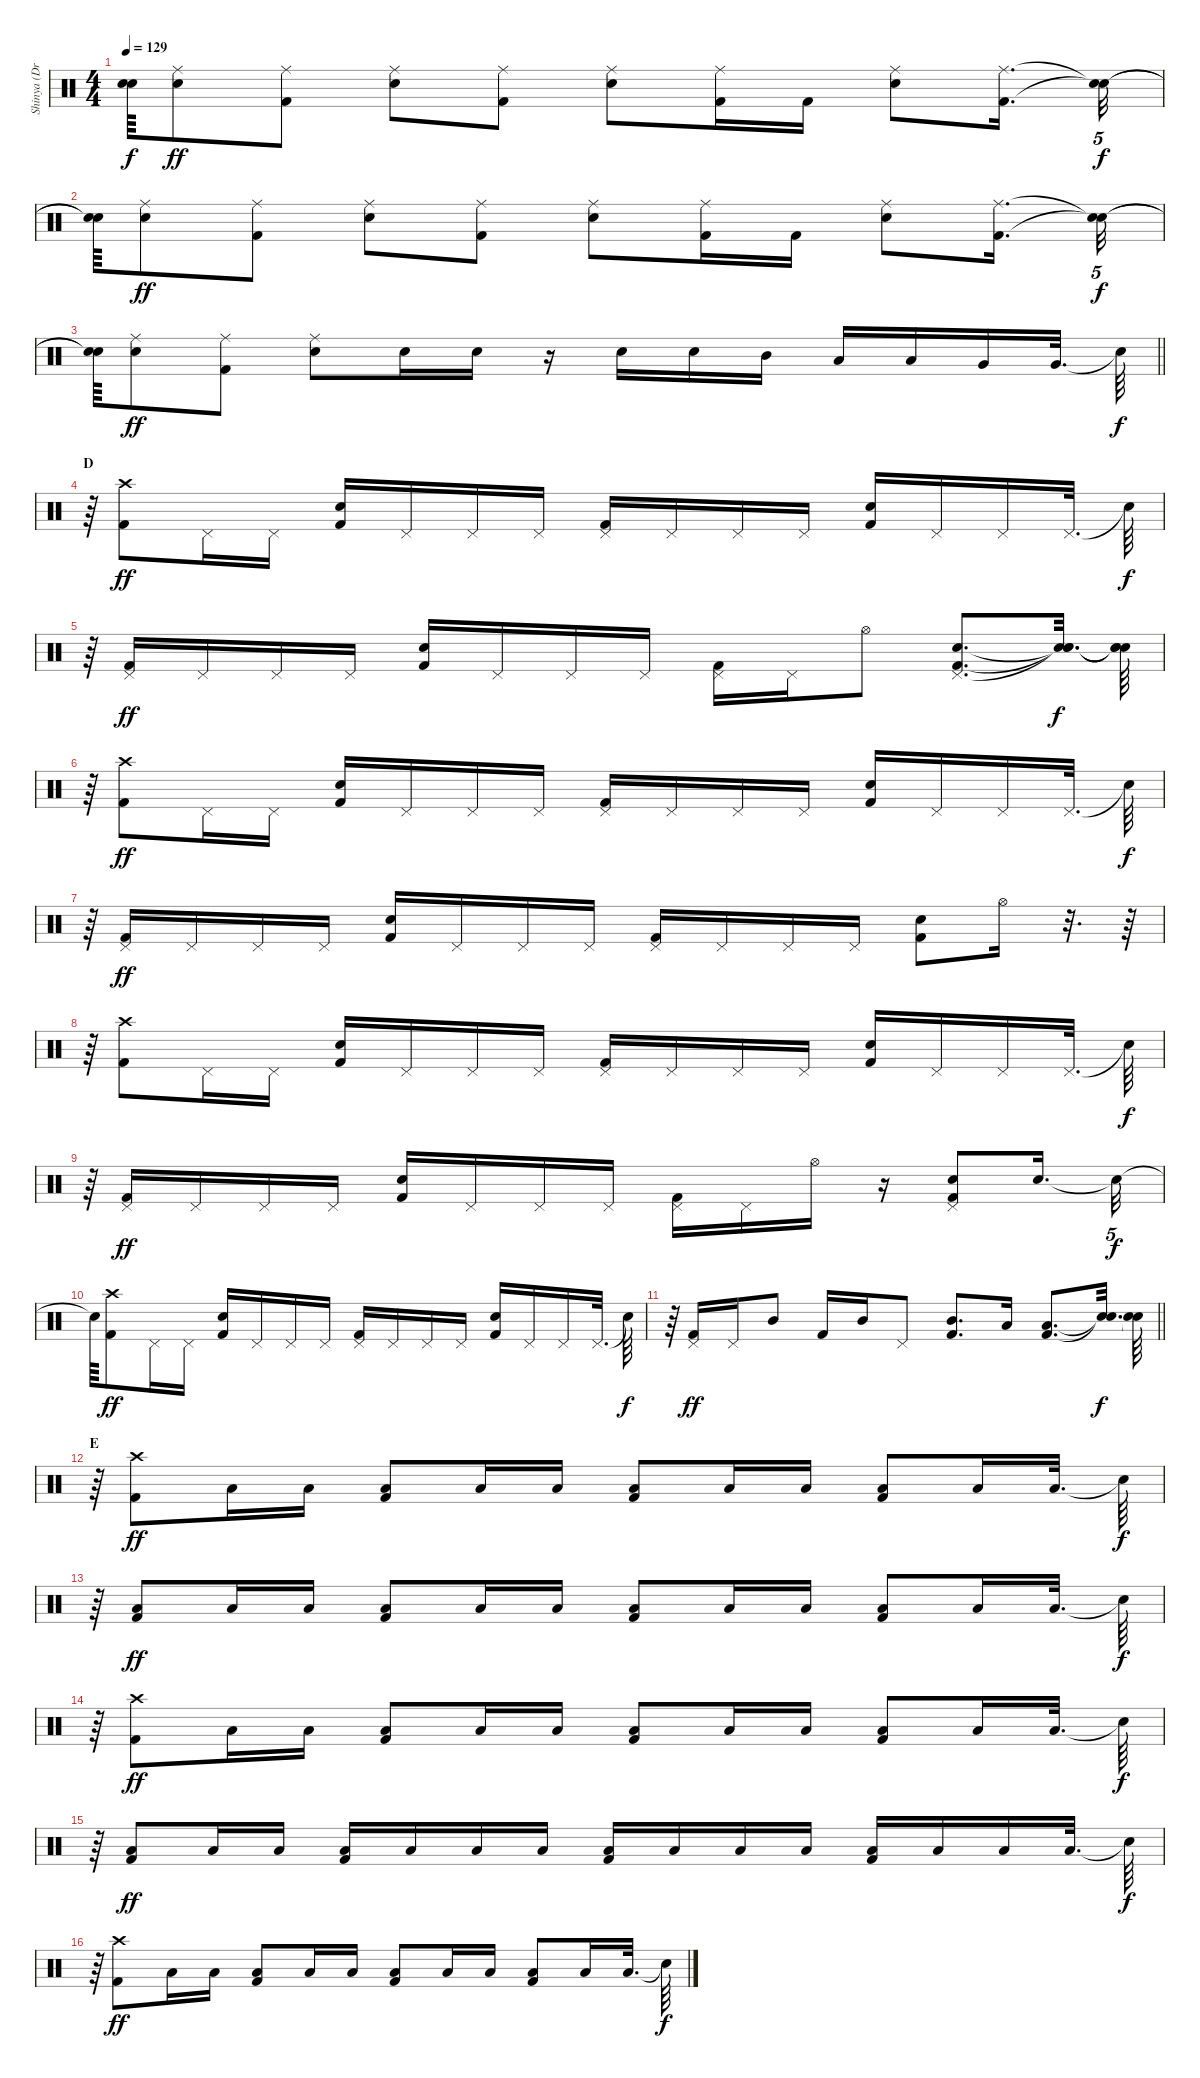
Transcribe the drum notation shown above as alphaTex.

\track ("Shinya (Drums)" "Shinya (Dr") {instrument percussion}
\staff {score}
\articulation defaults
\ts (4 4)
\tempo 129
\clef neutral
\ks c
("Snare (hit)"{t} "Snare (hit)"{t}).64{dy f} ("Electric Snare (hit)" "Ride (middle)").8{dy ff} ("Ride (middle)" "Kick (hit) 2").8 ("Electric Snare (hit)" "Ride (middle)").8 ("Ride (middle)" "Kick (hit) 2").8 ("Electric Snare (hit)" "Ride (middle)").8 ("Ride (middle)" "Kick (hit) 2").16 "Kick (hit) 2".16 ("Electric Snare (hit)" "Ride (middle)").8 ("Ride (middle)" "Kick (hit) 2").16{d} ("Snare (hit)"{t} "Snare (hit)"{t}).32{tu (5 4) dy f} |
("Snare (hit)"{t} "Snare (hit)"{t}).64 ("Electric Snare (hit)" "Ride (middle)").8{dy ff} ("Ride (middle)" "Kick (hit) 2").8 ("Electric Snare (hit)" "Ride (middle)").8 ("Ride (middle)" "Kick (hit) 2").8 ("Electric Snare (hit)" "Ride (middle)").8 ("Ride (middle)" "Kick (hit) 2").16 "Kick (hit) 2".16 ("Electric Snare (hit)" "Ride (middle)").8 ("Ride (middle)" "Kick (hit) 2").16{d} ("Snare (hit)"{t} "Snare (hit)"{t}).32{tu (5 4) dy f} |
\barLineRight lightlight
("Snare (hit)"{t} "Snare (hit)"{t}).64 ("Ride (middle)" "Electric Snare (hit)").8{dy ff} ("Ride (middle)" "Kick (hit) 2").8 ("Ride (middle)" "Electric Snare (hit)").8 "Electric Snare (hit)".16 "Electric Snare (hit)".16 r.16 "Electric Snare (hit)".16 "Electric Snare (hit)".16 "Mid Tom (hit)".16 "Low Tom (hit)".16 "Low Tom (hit)".16 "Very Low Tom (hit)".16 "Very Low Tom (hit)".32{d} "Snare (hit)"{t}.64{dy f} |
\section ("" "D")
r.64 ("Crash high (hit)" "Kick (hit) 2").8{dy ff} "Pedal Hi-Hat (hit)".16 "Pedal Hi-Hat (hit)".16 ("Electric Snare (hit)" "Kick (hit) 2").16 "Pedal Hi-Hat (hit)".16 "Pedal Hi-Hat (hit)".16 "Pedal Hi-Hat (hit)".16 ("Pedal Hi-Hat (hit)" "Kick (hit) 2").16 "Pedal Hi-Hat (hit)".16 "Pedal Hi-Hat (hit)".16 "Pedal Hi-Hat (hit)".16 ("Electric Snare (hit)" "Kick (hit) 2").16 "Pedal Hi-Hat (hit)".16 "Pedal Hi-Hat (hit)".16 "Pedal Hi-Hat (hit)".32{d} "Snare (hit)"{t}.64{dy f} |
r.64 ("Kick (hit) 2" "Pedal Hi-Hat (hit)").16{dy ff} "Pedal Hi-Hat (hit)".16 "Pedal Hi-Hat (hit)".16 "Pedal Hi-Hat (hit)".16 ("Kick (hit) 2" "Electric Snare (hit)").16 "Pedal Hi-Hat (hit)".16 "Pedal Hi-Hat (hit)".16 "Pedal Hi-Hat (hit)".16 ("Kick (hit) 2" "Pedal Hi-Hat (hit)").16 "Pedal Hi-Hat (hit)".16 "Hi-Hat (open)".8 ("Kick (hit) 2" "Pedal Hi-Hat (hit)" "Electric Snare (hit)").8{d} ("Snare (hit)"{t} "Snare (hit)"{t} "Snare (hit)"{t}).32{d dy f} ("Snare (hit)"{t} "Snare (hit)"{t} "Snare (hit)"{t}).64 |
r.64 ("Crash high (hit)" "Kick (hit) 2").8{dy ff} "Pedal Hi-Hat (hit)".16 "Pedal Hi-Hat (hit)".16 ("Electric Snare (hit)" "Kick (hit) 2").16 "Pedal Hi-Hat (hit)".16 "Pedal Hi-Hat (hit)".16 "Pedal Hi-Hat (hit)".16 ("Pedal Hi-Hat (hit)" "Kick (hit) 2").16 "Pedal Hi-Hat (hit)".16 "Pedal Hi-Hat (hit)".16 "Pedal Hi-Hat (hit)".16 ("Electric Snare (hit)" "Kick (hit) 2").16 "Pedal Hi-Hat (hit)".16 "Pedal Hi-Hat (hit)".16 "Pedal Hi-Hat (hit)".32{d} "Snare (hit)"{t}.64{dy f} |
r.64 ("Kick (hit) 2" "Pedal Hi-Hat (hit)").16{dy ff} "Pedal Hi-Hat (hit)".16 "Pedal Hi-Hat (hit)".16 "Pedal Hi-Hat (hit)".16 ("Electric Snare (hit)" "Kick (hit) 2").16 "Pedal Hi-Hat (hit)".16 "Pedal Hi-Hat (hit)".16 "Pedal Hi-Hat (hit)".16 ("Pedal Hi-Hat (hit)" "Kick (hit) 2").16 "Pedal Hi-Hat (hit)".16 "Pedal Hi-Hat (hit)".16 "Pedal Hi-Hat (hit)".16 ("Electric Snare (hit)" "Kick (hit) 2").8 "Hi-Hat (open)".16 r.32{d} r.64 |
r.64 ("Crash high (hit)" "Kick (hit) 2").8 "Pedal Hi-Hat (hit)".16 "Pedal Hi-Hat (hit)".16 ("Electric Snare (hit)" "Kick (hit) 2").16 "Pedal Hi-Hat (hit)".16 "Pedal Hi-Hat (hit)".16 "Pedal Hi-Hat (hit)".16 ("Pedal Hi-Hat (hit)" "Kick (hit) 2").16 "Pedal Hi-Hat (hit)".16 "Pedal Hi-Hat (hit)".16 "Pedal Hi-Hat (hit)".16 ("Electric Snare (hit)" "Kick (hit) 2").16 "Pedal Hi-Hat (hit)".16 "Pedal Hi-Hat (hit)".16 "Pedal Hi-Hat (hit)".32{d} "Snare (hit)"{t}.64{dy f} |
r.64 ("Kick (hit) 2" "Pedal Hi-Hat (hit)").16{dy ff} "Pedal Hi-Hat (hit)".16 "Pedal Hi-Hat (hit)".16 "Pedal Hi-Hat (hit)".16 ("Electric Snare (hit)" "Kick (hit) 2").16 "Pedal Hi-Hat (hit)".16 "Pedal Hi-Hat (hit)".16 "Pedal Hi-Hat (hit)".16 ("Pedal Hi-Hat (hit)" "Kick (hit) 2").16 "Pedal Hi-Hat (hit)".16 "Hi-Hat (open)".16 r.16 ("Kick (hit) 2" "Electric Snare (hit)" "Pedal Hi-Hat (hit)").8 "Electric Snare (hit)".16{d} "Snare (hit)"{t}.32{tu (5 4) dy f} |
"Snare (hit)"{t}.64 ("Crash high (hit)" "Kick (hit) 2").8{dy ff} "Pedal Hi-Hat (hit)".16 "Pedal Hi-Hat (hit)".16 ("Electric Snare (hit)" "Kick (hit) 2").16 "Pedal Hi-Hat (hit)".16 "Pedal Hi-Hat (hit)".16 "Pedal Hi-Hat (hit)".16 ("Pedal Hi-Hat (hit)" "Kick (hit) 2").16 "Pedal Hi-Hat (hit)".16 "Pedal Hi-Hat (hit)".16 "Pedal Hi-Hat (hit)".16 ("Electric Snare (hit)" "Kick (hit) 2").16 "Pedal Hi-Hat (hit)".16 "Pedal Hi-Hat (hit)".16 "Pedal Hi-Hat (hit)".32{d} "Snare (hit)"{t}.64{dy f} |
\barLineRight lightlight
r.64 ("Kick (hit) 2" "Pedal Hi-Hat (hit)").16{dy ff} "Pedal Hi-Hat (hit)".16 "Mid Tom (hit)".8 "Kick (hit) 2".16 "Mid Tom (hit)".16 "Pedal Hi-Hat (hit)".8 ("Kick (hit) 2" "Mid Tom (hit)").8{d} "Low Tom (hit)".16 ("Kick (hit) 2" "Low Tom (hit)").8{d} ("Snare (hit)"{t} "Snare (hit)"{t}).32{d dy f} ("Snare (hit)"{t} "Snare (hit)"{t}).64 |
\section ("" "E")
r.64 ("Kick (hit) 2" "Crash high (hit)").8{dy ff} "Low Floor Tom (hit)".16 "Low Floor Tom (hit)".16 ("Kick (hit) 2" "Low Floor Tom (hit)").8 "Low Floor Tom (hit)".16 "Low Floor Tom (hit)".16 ("Kick (hit) 2" "Low Floor Tom (hit)").8 "Low Floor Tom (hit)".16 "Low Floor Tom (hit)".16 ("Kick (hit) 2" "Low Floor Tom (hit)").8 "Low Floor Tom (hit)".16 "Low Floor Tom (hit)".32{d} "Snare (hit)"{t}.64{dy f} |
r.64 ("Kick (hit) 2" "Low Floor Tom (hit)").8{dy ff} "Low Floor Tom (hit)".16 "Low Floor Tom (hit)".16 ("Kick (hit) 2" "Low Floor Tom (hit)").8 "Low Floor Tom (hit)".16 "Low Floor Tom (hit)".16 ("Kick (hit) 2" "Low Floor Tom (hit)").8 "Low Floor Tom (hit)".16 "Low Floor Tom (hit)".16 ("Kick (hit) 2" "Low Floor Tom (hit)").8 "Low Floor Tom (hit)".16 "Low Floor Tom (hit)".32{d} "Snare (hit)"{t}.64{dy f} |
r.64 ("Kick (hit) 2" "Crash high (hit)").8{dy ff} "Low Floor Tom (hit)".16 "Low Floor Tom (hit)".16 ("Kick (hit) 2" "Low Floor Tom (hit)").8 "Low Floor Tom (hit)".16 "Low Floor Tom (hit)".16 ("Kick (hit) 2" "Low Floor Tom (hit)").8 "Low Floor Tom (hit)".16 "Low Floor Tom (hit)".16 ("Kick (hit) 2" "Low Floor Tom (hit)").8 "Low Floor Tom (hit)".16 "Low Floor Tom (hit)".32{d} "Snare (hit)"{t}.64{dy f} |
r.64 ("Kick (hit) 2" "Low Floor Tom (hit)").8{dy ff} "Low Floor Tom (hit)".16 "Low Floor Tom (hit)".16 ("Kick (hit) 2" "Low Floor Tom (hit)").16 "Low Floor Tom (hit)".16 "Low Floor Tom (hit)".16 "Low Floor Tom (hit)".16 ("Kick (hit) 2" "Low Floor Tom (hit)").16 "Low Floor Tom (hit)".16 "Low Floor Tom (hit)".16 "Low Floor Tom (hit)".16 ("Kick (hit) 2" "Low Floor Tom (hit)").16 "Low Floor Tom (hit)".16 "Low Floor Tom (hit)".16 "Low Floor Tom (hit)".32{d} "Snare (hit)"{t}.64{dy f} |
r.64 ("Kick (hit) 2" "Crash high (hit)").8{dy ff} "Low Floor Tom (hit)".16 "Low Floor Tom (hit)".16 ("Kick (hit) 2" "Low Floor Tom (hit)").8 "Low Floor Tom (hit)".16 "Low Floor Tom (hit)".16 ("Kick (hit) 2" "Low Floor Tom (hit)").8 "Low Floor Tom (hit)".16 "Low Floor Tom (hit)".16 ("Kick (hit) 2" "Low Floor Tom (hit)").8 "Low Floor Tom (hit)".16 "Low Floor Tom (hit)".32{d} "Snare (hit)"{t}.64{dy f}
